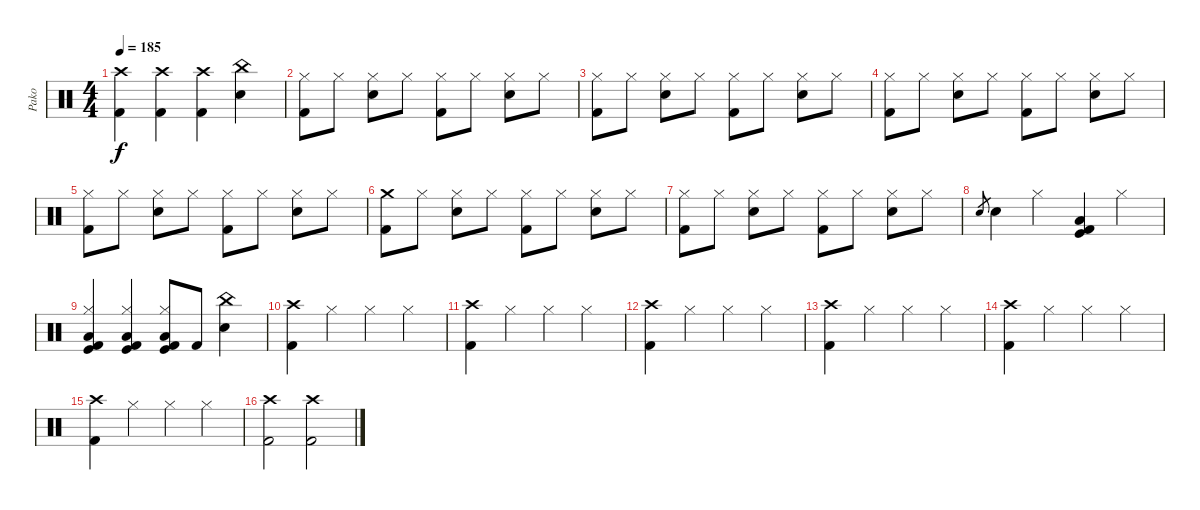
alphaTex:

\track ("Pako" "Pako") {instrument percussion}
\staff {score}
\articulation defaults
\ts (4 4)
\tempo 185
\clef neutral
\ks c
("Crash high (hit)" "Kick (hit) 2").4{dy f} ("Crash high (hit)" "Kick (hit) 2").4 ("Crash high (hit)" "Kick (hit) 2").4 ("China (hit)" "Snare (hit) 2").4 |
("Hi-Hat (closed)" "Kick (hit) 2").8 "Hi-Hat (closed)".8 ("Hi-Hat (closed)" "Snare (hit) 2").8 "Hi-Hat (closed)".8 ("Hi-Hat (closed)" "Kick (hit) 2").8 "Hi-Hat (closed)".8 ("Hi-Hat (closed)" "Snare (hit) 2").8 "Hi-Hat (closed)".8 |
("Hi-Hat (closed)" "Kick (hit) 2").8 "Hi-Hat (closed)".8 ("Hi-Hat (closed)" "Snare (hit) 2").8 "Hi-Hat (closed)".8 ("Hi-Hat (closed)" "Kick (hit) 2").8 "Hi-Hat (closed)".8 ("Hi-Hat (closed)" "Snare (hit) 2").8 "Hi-Hat (closed)".8 |
("Hi-Hat (closed)" "Kick (hit) 2").8 "Hi-Hat (closed)".8 ("Hi-Hat (closed)" "Snare (hit) 2").8 "Hi-Hat (closed)".8 ("Hi-Hat (closed)" "Kick (hit) 2").8 "Hi-Hat (closed)".8 ("Hi-Hat (closed)" "Snare (hit) 2").8 "Hi-Hat (closed)".8 |
("Hi-Hat (closed)" "Kick (hit) 2").8 "Hi-Hat (closed)".8 ("Hi-Hat (closed)" "Snare (hit) 2").8 "Hi-Hat (closed)".8 ("Hi-Hat (closed)" "Kick (hit) 2").8 "Hi-Hat (closed)".8 ("Hi-Hat (closed)" "Snare (hit) 2").8 "Hi-Hat (closed)".8 |
("Crash medium (hit)" "Kick (hit) 2").8 "Hi-Hat (closed)".8 ("Hi-Hat (closed)" "Snare (hit) 2").8 "Hi-Hat (closed)".8 ("Hi-Hat (closed)" "Kick (hit) 2").8 "Hi-Hat (closed)".8 ("Hi-Hat (closed)" "Snare (hit) 2").8 "Hi-Hat (closed)".8 |
("Hi-Hat (closed)" "Kick (hit) 2").8 "Hi-Hat (closed)".8 ("Hi-Hat (closed)" "Snare (hit) 2").8 "Hi-Hat (closed)".8 ("Hi-Hat (closed)" "Kick (hit) 2").8 "Hi-Hat (closed)".8 ("Hi-Hat (closed)" "Snare (hit) 2").8 "Hi-Hat (closed)".8 |
"Snare (hit) 2".8{gr} "Snare (hit) 2".4 "Hi-Hat (closed)".4 ("Low Tom (hit)" "Kick (hit)" "Kick (hit) 2").4 "Hi-Hat (closed)".4 |
("Hi-Hat (closed)" "Low Tom (hit)" "Kick (hit)" "Kick (hit) 2").4 ("Hi-Hat (closed)" "Low Tom (hit)" "Kick (hit)" "Kick (hit) 2").4 ("Hi-Hat (closed)" "Low Tom (hit)" "Kick (hit)" "Kick (hit) 2").8 "Kick (hit) 2".8 ("China (hit)" "Snare (hit) 2").4 |
("Crash high (hit)" "Kick (hit) 2").4 "Hi-Hat (closed)".4 "Hi-Hat (closed)".4 "Hi-Hat (closed)".4 |
("Crash high (hit)" "Kick (hit) 2").4 "Hi-Hat (closed)".4 "Hi-Hat (closed)".4 "Hi-Hat (closed)".4 |
("Crash high (hit)" "Kick (hit) 2").4 "Hi-Hat (closed)".4 "Hi-Hat (closed)".4 "Hi-Hat (closed)".4 |
("Crash high (hit)" "Kick (hit) 2").4 "Hi-Hat (closed)".4 "Hi-Hat (closed)".4 "Hi-Hat (closed)".4 |
("Crash high (hit)" "Kick (hit) 2").4 "Hi-Hat (closed)".4 "Hi-Hat (closed)".4 "Hi-Hat (closed)".4 |
("Crash high (hit)" "Kick (hit) 2").4 "Hi-Hat (closed)".4 "Hi-Hat (closed)".4 "Hi-Hat (closed)".4 |
("Crash high (hit)" "Kick (hit) 2").2 ("Crash high (hit)" "Kick (hit) 2").2
